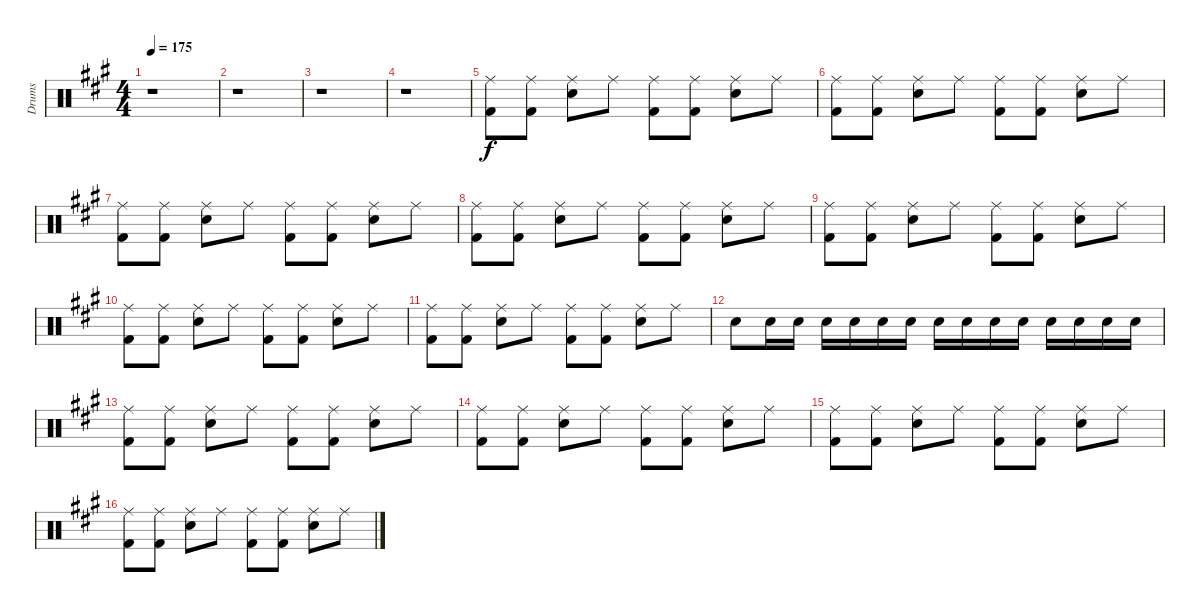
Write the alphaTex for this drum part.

\track ("Drums" "Drums") {instrument percussion}
\staff {score}
\articulation defaults
\ts (4 4)
\tempo 175
\clef neutral
\ks f#minor
r.1{dy f} |
r.1 |
r.1 |
r.1 |
("Ride (middle)" "Kick (hit) 2").8 ("Ride (middle)" "Kick (hit) 2").8 ("Ride (middle)" "Snare (hit) 2").8 "Ride (middle)".8 ("Ride (middle)" "Kick (hit) 2").8 ("Ride (middle)" "Kick (hit) 2").8 ("Ride (middle)" "Snare (hit) 2").8 "Ride (middle)".8 |
("Ride (middle)" "Kick (hit) 2").8 ("Ride (middle)" "Kick (hit) 2").8 ("Ride (middle)" "Snare (hit) 2").8 "Ride (middle)".8 ("Ride (middle)" "Kick (hit) 2").8 ("Ride (middle)" "Kick (hit) 2").8 ("Ride (middle)" "Snare (hit) 2").8 "Ride (middle)".8 |
("Ride (middle)" "Kick (hit) 2").8 ("Ride (middle)" "Kick (hit) 2").8 ("Ride (middle)" "Snare (hit) 2").8 "Ride (middle)".8 ("Ride (middle)" "Kick (hit) 2").8 ("Ride (middle)" "Kick (hit) 2").8 ("Ride (middle)" "Snare (hit) 2").8 "Ride (middle)".8 |
("Ride (middle)" "Kick (hit) 2").8 ("Ride (middle)" "Kick (hit) 2").8 ("Ride (middle)" "Snare (hit) 2").8 "Ride (middle)".8 ("Ride (middle)" "Kick (hit) 2").8 ("Ride (middle)" "Kick (hit) 2").8 ("Ride (middle)" "Snare (hit) 2").8 "Ride (middle)".8 |
("Ride (middle)" "Kick (hit) 2").8 ("Ride (middle)" "Kick (hit) 2").8 ("Ride (middle)" "Snare (hit) 2").8 "Ride (middle)".8 ("Ride (middle)" "Kick (hit) 2").8 ("Ride (middle)" "Kick (hit) 2").8 ("Ride (middle)" "Snare (hit) 2").8 "Ride (middle)".8 |
("Ride (middle)" "Kick (hit) 2").8 ("Ride (middle)" "Kick (hit) 2").8 ("Ride (middle)" "Snare (hit) 2").8 "Ride (middle)".8 ("Ride (middle)" "Kick (hit) 2").8 ("Ride (middle)" "Kick (hit) 2").8 ("Ride (middle)" "Snare (hit) 2").8 "Ride (middle)".8 |
("Ride (middle)" "Kick (hit) 2").8 ("Ride (middle)" "Kick (hit) 2").8 ("Ride (middle)" "Snare (hit) 2").8 "Ride (middle)".8 ("Ride (middle)" "Kick (hit) 2").8 ("Ride (middle)" "Kick (hit) 2").8 ("Ride (middle)" "Snare (hit) 2").8 "Ride (middle)".8 |
"Snare (hit) 2".8 "Snare (hit) 2".16 "Snare (hit) 2".16 "Snare (hit) 2".16 "Snare (hit) 2".16 "Snare (hit) 2".16 "Snare (hit) 2".16 "Snare (hit) 2".16 "Snare (hit) 2".16 "Snare (hit) 2".16 "Snare (hit) 2".16 "Snare (hit) 2".16 "Snare (hit) 2".16 "Snare (hit) 2".16 "Snare (hit) 2".16 |
("Ride (middle)" "Kick (hit) 2").8 ("Ride (middle)" "Kick (hit) 2").8 ("Ride (middle)" "Snare (hit) 2").8 "Ride (middle)".8 ("Ride (middle)" "Kick (hit) 2").8 ("Ride (middle)" "Kick (hit) 2").8 ("Ride (middle)" "Snare (hit) 2").8 "Ride (middle)".8 |
("Ride (middle)" "Kick (hit) 2").8 ("Ride (middle)" "Kick (hit) 2").8 ("Ride (middle)" "Snare (hit) 2").8 "Ride (middle)".8 ("Ride (middle)" "Kick (hit) 2").8 ("Ride (middle)" "Kick (hit) 2").8 ("Ride (middle)" "Snare (hit) 2").8 "Ride (middle)".8 |
("Ride (middle)" "Kick (hit) 2").8 ("Ride (middle)" "Kick (hit) 2").8 ("Ride (middle)" "Snare (hit) 2").8 "Ride (middle)".8 ("Ride (middle)" "Kick (hit) 2").8 ("Ride (middle)" "Kick (hit) 2").8 ("Ride (middle)" "Snare (hit) 2").8 "Ride (middle)".8 |
("Ride (middle)" "Kick (hit) 2").8 ("Ride (middle)" "Kick (hit) 2").8 ("Ride (middle)" "Snare (hit) 2").8 "Ride (middle)".8 ("Ride (middle)" "Kick (hit) 2").8 ("Ride (middle)" "Kick (hit) 2").8 ("Ride (middle)" "Snare (hit) 2").8 "Ride (middle)".8
